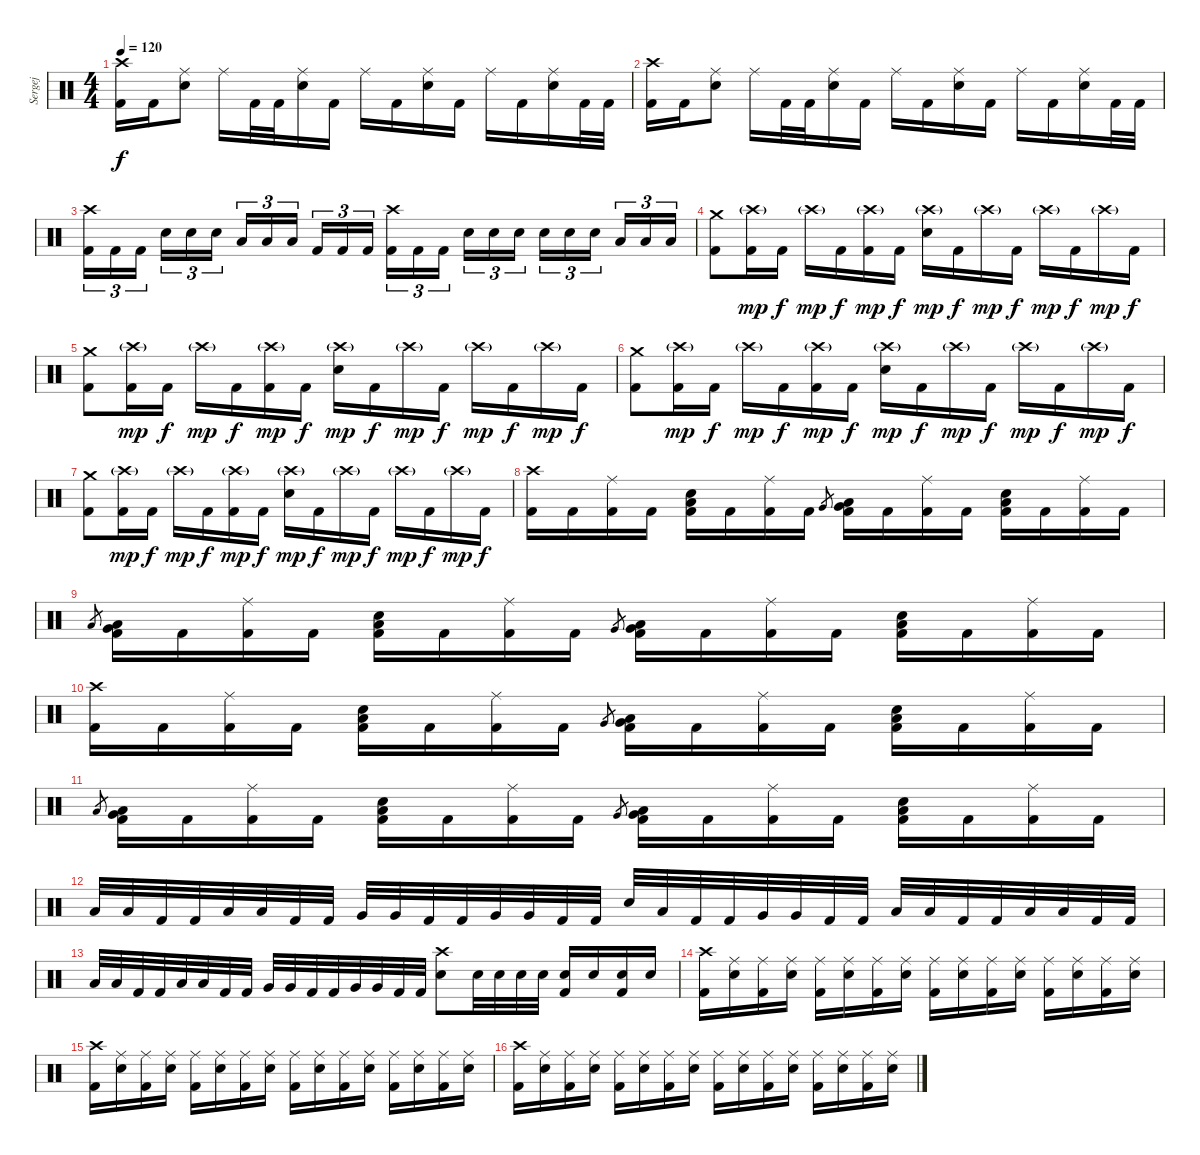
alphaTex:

\track ("Sergej" "Sergej") {instrument percussion}
\staff {score}
\articulation defaults
\ts (4 4)
\tempo 120
\clef neutral
\ks c
("Crash high (hit)" "Kick (hit) 2").16{dy f} "Kick (hit) 2".16 ("Ride (middle)" "Snare (hit) 2").8 "Ride (middle)".16 "Kick (hit) 2".32 "Kick (hit) 2".32 ("Ride (middle)" "Snare (hit) 2").16 "Kick (hit) 2".16 "Ride (middle)".16 "Kick (hit) 2".16 ("Ride (middle)" "Snare (hit) 2").16 "Kick (hit) 2".16 "Ride (middle)".16 "Kick (hit) 2".16 ("Ride (middle)" "Snare (hit) 2").16 "Kick (hit) 2".32 "Kick (hit) 2".32 |
("Crash high (hit)" "Kick (hit) 2").16 "Kick (hit) 2".16 ("Ride (middle)" "Snare (hit) 2").8 "Ride (middle)".16 "Kick (hit) 2".32 "Kick (hit) 2".32 ("Ride (middle)" "Snare (hit) 2").16 "Kick (hit) 2".16 "Ride (middle)".16 "Kick (hit) 2".16 ("Ride (middle)" "Snare (hit) 2").16 "Kick (hit) 2".16 "Ride (middle)".16 "Kick (hit) 2".16 ("Ride (middle)" "Snare (hit) 2").16 "Kick (hit) 2".32 "Kick (hit) 2".32 |
("Crash high (hit)" "Kick (hit) 2").16{tu (3 2)} "Kick (hit) 2".16{tu (3 2)} "Kick (hit) 2".16{tu (3 2)} "Snare (hit) 2".16{tu (3 2)} "Snare (hit) 2".16{tu (3 2)} "Snare (hit) 2".16{tu (3 2)} "Low Tom (hit)".16{tu (3 2)} "Low Tom (hit)".16{tu (3 2)} "Low Tom (hit)".16{tu (3 2)} "Kick (hit) 2".16{tu (3 2)} "Kick (hit) 2".16{tu (3 2)} "Kick (hit) 2".16{tu (3 2)} ("Crash high (hit)" "Kick (hit) 2").16{tu (3 2)} "Kick (hit) 2".16{tu (3 2)} "Kick (hit) 2".16{tu (3 2)} "Snare (hit) 2".16{tu (3 2)} "Snare (hit) 2".16{tu (3 2)} "Snare (hit) 2".16{tu (3 2)} "Snare (hit) 2".16{tu (3 2)} "Snare (hit) 2".16{tu (3 2)} "Snare (hit) 2".16{tu (3 2)} "Low Tom (hit)".16{tu (3 2)} "Low Tom (hit)".16{tu (3 2)} "Low Tom (hit)".16{tu (3 2)} |
("Crash medium (hit)" "Kick (hit) 2").8 ("Crash high (hit)"{g} "Kick (hit) 2").16{dy mp} "Kick (hit) 2".16{dy f} "Crash high (hit)"{g}.16{dy mp} "Kick (hit) 2".16{dy f} ("Crash high (hit)"{g} "Kick (hit) 2").16{dy mp} "Kick (hit) 2".16{dy f} ("Crash high (hit)"{g} "Snare (hit) 2").16{dy mp} "Kick (hit) 2".16{dy f} "Crash high (hit)"{g}.16{dy mp} "Kick (hit) 2".16{dy f} "Crash high (hit)"{g}.16{dy mp} "Kick (hit) 2".16{dy f} "Crash high (hit)"{g}.16{dy mp} "Kick (hit) 2".16{dy f} |
("Crash medium (hit)" "Kick (hit) 2").8 ("Crash high (hit)"{g} "Kick (hit) 2").16{dy mp} "Kick (hit) 2".16{dy f} "Crash high (hit)"{g}.16{dy mp} "Kick (hit) 2".16{dy f} ("Crash high (hit)"{g} "Kick (hit) 2").16{dy mp} "Kick (hit) 2".16{dy f} ("Crash high (hit)"{g} "Snare (hit) 2").16{dy mp} "Kick (hit) 2".16{dy f} "Crash high (hit)"{g}.16{dy mp} "Kick (hit) 2".16{dy f} "Crash high (hit)"{g}.16{dy mp} "Kick (hit) 2".16{dy f} "Crash high (hit)"{g}.16{dy mp} "Kick (hit) 2".16{dy f} |
("Crash medium (hit)" "Kick (hit) 2").8 ("Crash high (hit)"{g} "Kick (hit) 2").16{dy mp} "Kick (hit) 2".16{dy f} "Crash high (hit)"{g}.16{dy mp} "Kick (hit) 2".16{dy f} ("Crash high (hit)"{g} "Kick (hit) 2").16{dy mp} "Kick (hit) 2".16{dy f} ("Crash high (hit)"{g} "Snare (hit) 2").16{dy mp} "Kick (hit) 2".16{dy f} "Crash high (hit)"{g}.16{dy mp} "Kick (hit) 2".16{dy f} "Crash high (hit)"{g}.16{dy mp} "Kick (hit) 2".16{dy f} "Crash high (hit)"{g}.16{dy mp} "Kick (hit) 2".16{dy f} |
("Crash medium (hit)" "Kick (hit) 2").8 ("Crash high (hit)"{g} "Kick (hit) 2").16{dy mp} "Kick (hit) 2".16{dy f} "Crash high (hit)"{g}.16{dy mp} "Kick (hit) 2".16{dy f} ("Crash high (hit)"{g} "Kick (hit) 2").16{dy mp} "Kick (hit) 2".16{dy f} ("Crash high (hit)"{g} "Snare (hit) 2").16{dy mp} "Kick (hit) 2".16{dy f} "Crash high (hit)"{g}.16{dy mp} "Kick (hit) 2".16{dy f} "Crash high (hit)"{g}.16{dy mp} "Kick (hit) 2".16{dy f} "Crash high (hit)"{g}.16{dy mp} "Kick (hit) 2".16{dy f} |
("Crash high (hit)" "Kick (hit) 2").16 "Kick (hit) 2".16 ("Ride (middle)" "Kick (hit) 2").16 "Kick (hit) 2".16 ("Low Floor Tom (hit)" "Snare (hit) 2" "Kick (hit) 2").16 "Kick (hit) 2".16 ("Ride (middle)" "Kick (hit) 2").16 "Kick (hit) 2".16 "Very Low Tom (hit)".8{gr} ("Very Low Tom (hit)" "Low Floor Tom (hit)" "Kick (hit) 2").16 "Kick (hit) 2".16 ("Ride (middle)" "Kick (hit) 2").16 "Kick (hit) 2".16 ("Low Floor Tom (hit)" "Snare (hit) 2" "Kick (hit) 2").16 "Kick (hit) 2".16 ("Ride (middle)" "Kick (hit) 2").16 "Kick (hit) 2".16 |
"Low Floor Tom (hit)".8{gr} ("Low Floor Tom (hit)" "Very Low Tom (hit)" "Kick (hit) 2").16 "Kick (hit) 2".16 ("Ride (middle)" "Kick (hit) 2").16 "Kick (hit) 2".16 ("Low Floor Tom (hit)" "Snare (hit) 2" "Kick (hit) 2").16 "Kick (hit) 2".16 ("Ride (middle)" "Kick (hit) 2").16 "Kick (hit) 2".16 "Very Low Tom (hit)".8{gr} ("Very Low Tom (hit)" "Low Floor Tom (hit)" "Kick (hit) 2").16 "Kick (hit) 2".16 ("Ride (middle)" "Kick (hit) 2").16 "Kick (hit) 2".16 ("Low Floor Tom (hit)" "Snare (hit) 2" "Kick (hit) 2").16 "Kick (hit) 2".16 ("Ride (middle)" "Kick (hit) 2").16 "Kick (hit) 2".16 |
("Crash high (hit)" "Kick (hit) 2").16 "Kick (hit) 2".16 ("Ride (middle)" "Kick (hit) 2").16 "Kick (hit) 2".16 ("Low Floor Tom (hit)" "Snare (hit) 2" "Kick (hit) 2").16 "Kick (hit) 2".16 ("Ride (middle)" "Kick (hit) 2").16 "Kick (hit) 2".16 "Very Low Tom (hit)".8{gr} ("Very Low Tom (hit)" "Low Floor Tom (hit)" "Kick (hit) 2").16 "Kick (hit) 2".16 ("Ride (middle)" "Kick (hit) 2").16 "Kick (hit) 2".16 ("Low Floor Tom (hit)" "Snare (hit) 2" "Kick (hit) 2").16 "Kick (hit) 2".16 ("Ride (middle)" "Kick (hit) 2").16 "Kick (hit) 2".16 |
"Low Floor Tom (hit)".8{gr} ("Low Floor Tom (hit)" "Very Low Tom (hit)" "Kick (hit) 2").16 "Kick (hit) 2".16 ("Ride (middle)" "Kick (hit) 2").16 "Kick (hit) 2".16 ("Low Floor Tom (hit)" "Snare (hit) 2" "Kick (hit) 2").16 "Kick (hit) 2".16 ("Ride (middle)" "Kick (hit) 2").16 "Kick (hit) 2".16 "Very Low Tom (hit)".8{gr} ("Very Low Tom (hit)" "Low Floor Tom (hit)" "Kick (hit) 2").16 "Kick (hit) 2".16 ("Ride (middle)" "Kick (hit) 2").16 "Kick (hit) 2".16 ("Low Floor Tom (hit)" "Snare (hit) 2" "Kick (hit) 2").16 "Kick (hit) 2".16 ("Ride (middle)" "Kick (hit) 2").16 "Kick (hit) 2".16 |
"Low Tom (hit)".32 "Low Tom (hit)".32 "Kick (hit) 2".32 "Kick (hit) 2".32 "Low Tom (hit)".32 "Low Tom (hit)".32 "Kick (hit) 2".32 "Kick (hit) 2".32 "Very Low Tom (hit)".32 "Very Low Tom (hit)".32 "Kick (hit) 2".32 "Kick (hit) 2".32 "Very Low Tom (hit)".32 "Very Low Tom (hit)".32 "Kick (hit) 2".32 "Kick (hit) 2".32 "Snare (hit) 2".32 "Low Tom (hit)".32 "Kick (hit) 2".32 "Kick (hit) 2".32 "Very Low Tom (hit)".32 "Very Low Tom (hit)".32 "Kick (hit) 2".32 "Kick (hit) 2".32 "Low Floor Tom (hit)".32 "Low Floor Tom (hit)".32 "Kick (hit) 2".32 "Kick (hit) 2".32 "Low Floor Tom (hit)".32 "Low Floor Tom (hit)".32 "Kick (hit) 2".32 "Kick (hit) 2".32 |
"Low Tom (hit)".32 "Low Tom (hit)".32 "Kick (hit) 2".32 "Kick (hit) 2".32 "Low Tom (hit)".32 "Low Tom (hit)".32 "Kick (hit) 2".32 "Kick (hit) 2".32 "Very Low Tom (hit)".32 "Very Low Tom (hit)".32 "Kick (hit) 2".32 "Kick (hit) 2".32 "Very Low Tom (hit)".32 "Very Low Tom (hit)".32 "Kick (hit) 2".32 "Kick (hit) 2".32 ("Crash high (hit)" "Snare (hit) 2").8 "Snare (hit) 2".32 "Snare (hit) 2".32 "Snare (hit) 2".32 "Snare (hit) 2".32 ("Kick (hit) 2" "Snare (hit) 2").16 "Snare (hit) 2".16 ("Kick (hit) 2" "Snare (hit) 2").16 "Snare (hit) 2".16 |
("Crash high (hit)" "Kick (hit) 2").16 ("Ride (middle)" "Snare (hit) 2").16 ("Ride (middle)" "Kick (hit) 2").16 ("Ride (middle)" "Snare (hit) 2").16 ("Ride (middle)" "Kick (hit) 2").16 ("Ride (middle)" "Snare (hit) 2").16 ("Ride (middle)" "Kick (hit) 2").16 ("Ride (middle)" "Snare (hit) 2").16 ("Ride (middle)" "Kick (hit) 2").16 ("Ride (middle)" "Snare (hit) 2").16 ("Ride (middle)" "Kick (hit) 2").16 ("Ride (middle)" "Snare (hit) 2").16 ("Ride (middle)" "Kick (hit) 2").16 ("Ride (middle)" "Snare (hit) 2").16 ("Ride (middle)" "Kick (hit) 2").16 ("Ride (middle)" "Snare (hit) 2").16 |
("Crash high (hit)" "Kick (hit) 2").16 ("Ride (middle)" "Snare (hit) 2").16 ("Ride (middle)" "Kick (hit) 2").16 ("Ride (middle)" "Snare (hit) 2").16 ("Ride (middle)" "Kick (hit) 2").16 ("Ride (middle)" "Snare (hit) 2").16 ("Ride (middle)" "Kick (hit) 2").16 ("Ride (middle)" "Snare (hit) 2").16 ("Ride (middle)" "Kick (hit) 2").16 ("Ride (middle)" "Snare (hit) 2").16 ("Ride (middle)" "Kick (hit) 2").16 ("Ride (middle)" "Snare (hit) 2").16 ("Ride (middle)" "Kick (hit) 2").16 ("Ride (middle)" "Snare (hit) 2").16 ("Ride (middle)" "Kick (hit) 2").16 ("Ride (middle)" "Snare (hit) 2").16 |
("Crash high (hit)" "Kick (hit) 2").16 ("Ride (middle)" "Snare (hit) 2").16 ("Ride (middle)" "Kick (hit) 2").16 ("Ride (middle)" "Snare (hit) 2").16 ("Ride (middle)" "Kick (hit) 2").16 ("Ride (middle)" "Snare (hit) 2").16 ("Ride (middle)" "Kick (hit) 2").16 ("Ride (middle)" "Snare (hit) 2").16 ("Ride (middle)" "Kick (hit) 2").16 ("Ride (middle)" "Snare (hit) 2").16 ("Ride (middle)" "Kick (hit) 2").16 ("Ride (middle)" "Snare (hit) 2").16 ("Ride (middle)" "Kick (hit) 2").16 ("Ride (middle)" "Snare (hit) 2").16 ("Ride (middle)" "Kick (hit) 2").16 ("Ride (middle)" "Snare (hit) 2").16
